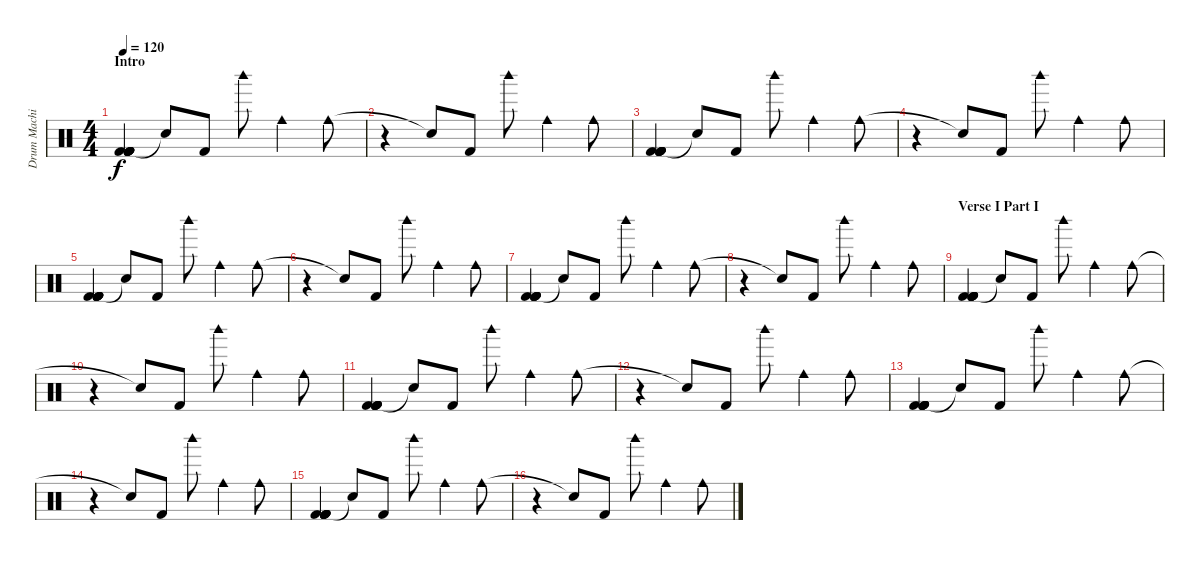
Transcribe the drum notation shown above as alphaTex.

\track ("Drum Machine" "Drum Machi") {instrument percussion}
\staff {score}
\articulation defaults
\ts (4 4)
\section ("" "Intro")
\tempo 120
\clef neutral
\ks c
("Kick (hit) 2" "Kick (hit) 2" "Kick (hit) 2" "Kick (hit) 2" "Kick (hit) 2" "Kick (hit) 2").4{dy f} "Snare (hit)"{t}.8 "Kick (hit) 2".8 "Woodblock high (hit)".8 "Cowbell medium (hit)".4 "Cowbell medium (hit)".8 |
r.4 "Snare (hit)"{t}.8 "Kick (hit) 2".8 "Woodblock high (hit)".8 "Cowbell medium (hit)".4 "Cowbell medium (hit)".8 |
("Kick (hit) 2" "Kick (hit) 2" "Kick (hit) 2" "Kick (hit) 2" "Kick (hit) 2" "Kick (hit) 2").4 "Snare (hit)"{t}.8 "Kick (hit) 2".8 "Woodblock high (hit)".8 "Cowbell medium (hit)".4 "Cowbell medium (hit)".8 |
r.4 "Snare (hit)"{t}.8 "Kick (hit) 2".8 "Woodblock high (hit)".8 "Cowbell medium (hit)".4 "Cowbell medium (hit)".8 |
("Kick (hit) 2" "Kick (hit) 2" "Kick (hit) 2" "Kick (hit) 2" "Kick (hit) 2" "Kick (hit) 2").4 "Snare (hit)"{t}.8 "Kick (hit) 2".8 "Woodblock high (hit)".8 "Cowbell medium (hit)".4 "Cowbell medium (hit)".8 |
r.4 "Snare (hit)"{t}.8 "Kick (hit) 2".8 "Woodblock high (hit)".8 "Cowbell medium (hit)".4 "Cowbell medium (hit)".8 |
("Kick (hit) 2" "Kick (hit) 2" "Kick (hit) 2" "Kick (hit) 2" "Kick (hit) 2" "Kick (hit) 2").4 "Snare (hit)"{t}.8 "Kick (hit) 2".8 "Woodblock high (hit)".8 "Cowbell medium (hit)".4 "Cowbell medium (hit)".8 |
r.4 "Snare (hit)"{t}.8 "Kick (hit) 2".8 "Woodblock high (hit)".8 "Cowbell medium (hit)".4 "Cowbell medium (hit)".8 |
\section ("" "Verse I Part I")
("Kick (hit) 2" "Kick (hit) 2" "Kick (hit) 2" "Kick (hit) 2" "Kick (hit) 2" "Kick (hit) 2").4 "Snare (hit)"{t}.8 "Kick (hit) 2".8 "Woodblock high (hit)".8 "Cowbell medium (hit)".4 "Cowbell medium (hit)".8 |
r.4 "Snare (hit)"{t}.8 "Kick (hit) 2".8 "Woodblock high (hit)".8 "Cowbell medium (hit)".4 "Cowbell medium (hit)".8 |
("Kick (hit) 2" "Kick (hit) 2" "Kick (hit) 2" "Kick (hit) 2" "Kick (hit) 2" "Kick (hit) 2").4 "Snare (hit)"{t}.8 "Kick (hit) 2".8 "Woodblock high (hit)".8 "Cowbell medium (hit)".4 "Cowbell medium (hit)".8 |
r.4 "Snare (hit)"{t}.8 "Kick (hit) 2".8 "Woodblock high (hit)".8 "Cowbell medium (hit)".4 "Cowbell medium (hit)".8 |
("Kick (hit) 2" "Kick (hit) 2" "Kick (hit) 2" "Kick (hit) 2" "Kick (hit) 2" "Kick (hit) 2").4 "Snare (hit)"{t}.8 "Kick (hit) 2".8 "Woodblock high (hit)".8 "Cowbell medium (hit)".4 "Cowbell medium (hit)".8 |
r.4 "Snare (hit)"{t}.8 "Kick (hit) 2".8 "Woodblock high (hit)".8 "Cowbell medium (hit)".4 "Cowbell medium (hit)".8 |
("Kick (hit) 2" "Kick (hit) 2" "Kick (hit) 2" "Kick (hit) 2" "Kick (hit) 2" "Kick (hit) 2").4 "Snare (hit)"{t}.8 "Kick (hit) 2".8 "Woodblock high (hit)".8 "Cowbell medium (hit)".4 "Cowbell medium (hit)".8 |
r.4 "Snare (hit)"{t}.8 "Kick (hit) 2".8 "Woodblock high (hit)".8 "Cowbell medium (hit)".4 "Cowbell medium (hit)".8
